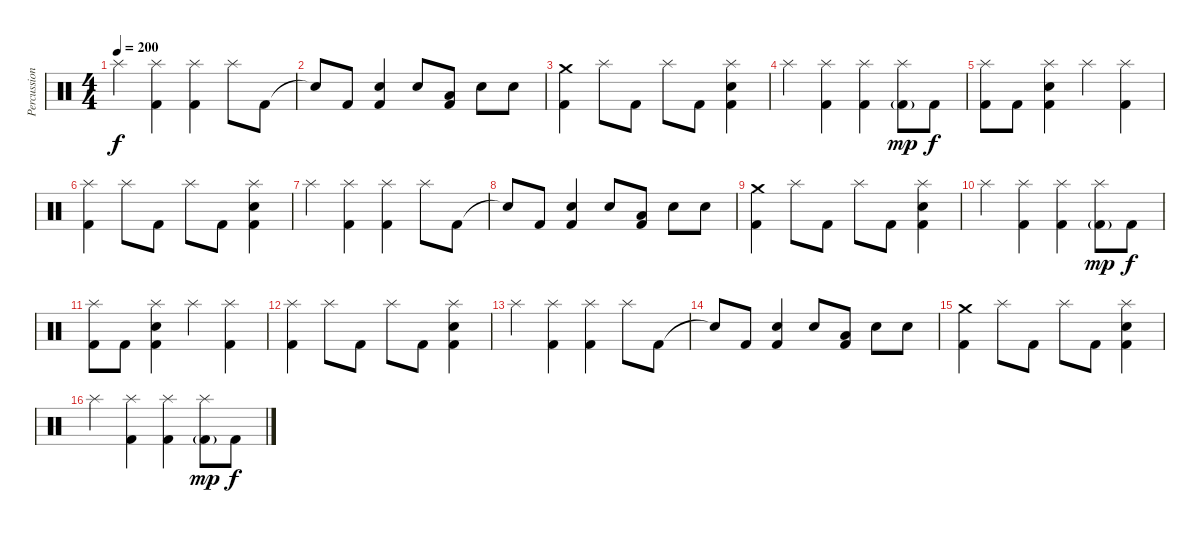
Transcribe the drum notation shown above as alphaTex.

\track ("Percussion" "Percussion") {instrument percussion}
\staff {score}
\articulation defaults
\ts (4 4)
\tempo 200
\clef neutral
\ks c "Splash (hit)".4{dy f}
("Kick (hit) 2" "Splash (hit)").4 ("Kick (hit) 2" "Splash (hit)").4 "Splash (hit)".8 "Kick (hit) 2".8 |
"Snare (hit)"{t}.8 "Kick (hit) 2".8 ("Kick (hit) 2" "Snare (hit) 2").4 "Snare (hit) 2".8 ("Kick (hit) 2" "Low Tom (hit)").8 "Snare (hit) 2".8 "Snare (hit) 2".8 |
("Kick (hit) 2" "Crash medium (hit)").4 "Splash (hit)".8 "Kick (hit) 2".8 "Splash (hit)".8 "Kick (hit) 2".8 ("Kick (hit) 2" "Splash (hit)" "Snare (hit) 2").4 |
"Splash (hit)".4 ("Kick (hit) 2" "Splash (hit)").4 ("Kick (hit) 2" "Splash (hit)").4 ("Kick (hit) 2"{g} "Splash (hit)").8{dy mp} "Kick (hit) 2".8{dy f} |
("Kick (hit) 2" "Splash (hit)").8 "Kick (hit) 2".8 ("Kick (hit) 2" "Snare (hit) 2" "Splash (hit)").4 "Splash (hit)".4 ("Kick (hit) 2" "Splash (hit)").4 |
("Kick (hit) 2" "Splash (hit)").4 "Splash (hit)".8 "Kick (hit) 2".8 "Splash (hit)".8 "Kick (hit) 2".8 ("Kick (hit) 2" "Splash (hit)" "Snare (hit) 2").4 |
"Splash (hit)".4 ("Kick (hit) 2" "Splash (hit)").4 ("Kick (hit) 2" "Splash (hit)").4 "Splash (hit)".8 "Kick (hit) 2".8 |
"Snare (hit)"{t}.8 "Kick (hit) 2".8 ("Kick (hit) 2" "Snare (hit) 2").4 "Snare (hit) 2".8 ("Kick (hit) 2" "Low Tom (hit)").8 "Snare (hit) 2".8 "Snare (hit) 2".8 |
("Kick (hit) 2" "Crash medium (hit)").4 "Splash (hit)".8 "Kick (hit) 2".8 "Splash (hit)".8 "Kick (hit) 2".8 ("Kick (hit) 2" "Splash (hit)" "Snare (hit) 2").4 |
"Splash (hit)".4 ("Kick (hit) 2" "Splash (hit)").4 ("Kick (hit) 2" "Splash (hit)").4 ("Kick (hit) 2"{g} "Splash (hit)").8{dy mp} "Kick (hit) 2".8{dy f} |
("Kick (hit) 2" "Splash (hit)").8 "Kick (hit) 2".8 ("Kick (hit) 2" "Snare (hit) 2" "Splash (hit)").4 "Splash (hit)".4 ("Kick (hit) 2" "Splash (hit)").4 |
("Kick (hit) 2" "Splash (hit)").4 "Splash (hit)".8 "Kick (hit) 2".8 "Splash (hit)".8 "Kick (hit) 2".8 ("Kick (hit) 2" "Splash (hit)" "Snare (hit) 2").4 |
"Splash (hit)".4 ("Kick (hit) 2" "Splash (hit)").4 ("Kick (hit) 2" "Splash (hit)").4 "Splash (hit)".8 "Kick (hit) 2".8 |
"Snare (hit)"{t}.8 "Kick (hit) 2".8 ("Kick (hit) 2" "Snare (hit) 2").4 "Snare (hit) 2".8 ("Kick (hit) 2" "Low Tom (hit)").8 "Snare (hit) 2".8 "Snare (hit) 2".8 |
("Kick (hit) 2" "Crash medium (hit)").4 "Splash (hit)".8 "Kick (hit) 2".8 "Splash (hit)".8 "Kick (hit) 2".8 ("Kick (hit) 2" "Splash (hit)" "Snare (hit) 2").4 |
"Splash (hit)".4 ("Kick (hit) 2" "Splash (hit)").4 ("Kick (hit) 2" "Splash (hit)").4 ("Kick (hit) 2"{g} "Splash (hit)").8{dy mp} "Kick (hit) 2".8{dy f}
